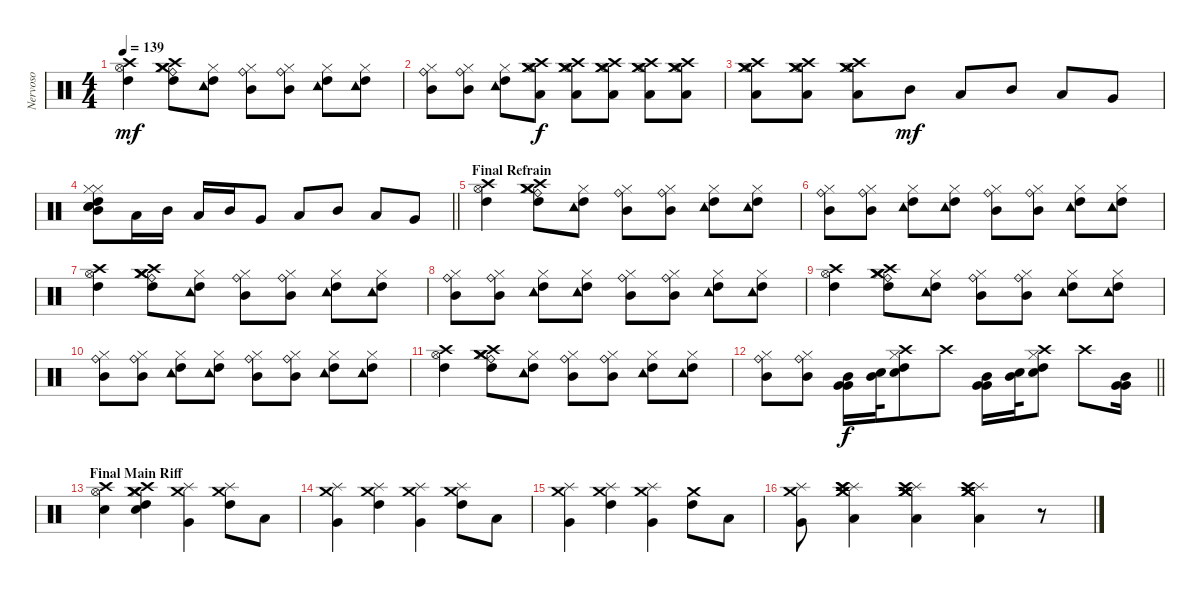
\track ("Nervoso" "Nervoso") {instrument percussion}
\staff {score}
\articulation defaults
\ts (4 4)
\tempo 139
\clef neutral
\ks c
("Hi-Hat (open)" "Crash high (hit)" "High Tom (hit)").4{dy mf} ("High Tom (hit)" "Crash high (hit)" "Crash medium (hit)" "Hi-Hat (closed)" "Ride (bell)" "Crash medium (hit)").8 ("High Tom (hit)" "Hi-Hat (closed)" "Tambourine (hit)").8 ("Ride (bell)" "Mid Tom (hit)" "Hi-Hat (closed)").8 ("Ride (bell)" "Mid Tom (hit)" "Hi-Hat (closed)").8 ("High Tom (hit)" "Hi-Hat (closed)" "Tambourine (hit)").8 ("High Tom (hit)" "Hi-Hat (closed)" "Tambourine (hit)").8 |
("Ride (bell)" "Mid Tom (hit)" "Hi-Hat (closed)").8 ("Ride (bell)" "Mid Tom (hit)" "Hi-Hat (closed)").8 ("High Tom (hit)" "Hi-Hat (closed)" "Tambourine (hit)").8 ("Crash high (hit)" "Crash medium (hit)" "Hi-Hat (open)" "Low Tom (hit)" "Crash medium (hit)").8{dy f} ("Crash high (hit)" "Crash medium (hit)" "Hi-Hat (open)" "Low Tom (hit)" "Crash medium (hit)").8 ("Crash high (hit)" "Crash medium (hit)" "Hi-Hat (open)" "Low Tom (hit)" "Crash medium (hit)").8 ("Crash high (hit)" "Crash medium (hit)" "Hi-Hat (open)" "Low Tom (hit)" "Crash medium (hit)").8 ("Crash high (hit)" "Crash medium (hit)" "Hi-Hat (open)" "Low Tom (hit)" "Crash medium (hit)").8 |
("Crash high (hit)" "Crash medium (hit)" "Hi-Hat (open)" "Low Tom (hit)" "Crash medium (hit)").8 ("Crash high (hit)" "Crash medium (hit)" "Hi-Hat (open)" "Low Tom (hit)" "Crash medium (hit)").8 ("Crash high (hit)" "Crash medium (hit)" "Hi-Hat (open)" "Low Tom (hit)" "Crash medium (hit)").8 "Mid Tom (hit)".8{dy mf} "Low Tom (hit)".8 "Mid Tom (hit)".8 "Low Tom (hit)".8 "Very Low Tom (hit)".8 |
\barLineRight lightlight
("High Tom (hit)" "Electric Snare (hit)" "Hi-Hat (closed)" "Hi-Hat (closed)" "Electric Snare (hit)" "Mid Tom (hit)").8 "Low Tom (hit)".16 "Mid Tom (hit)".16 "Low Tom (hit)".16 "Mid Tom (hit)".16 "Very Low Tom (hit)".8 "Low Tom (hit)".8 "Mid Tom (hit)".8 "Low Tom (hit)".8 "Very Low Tom (hit)".8 |
\section ("" "Final Refrain")
("Hi-Hat (open)" "Crash high (hit)" "High Tom (hit)").4 ("High Tom (hit)" "Crash high (hit)" "Crash medium (hit)" "Hi-Hat (closed)" "Ride (bell)" "Crash medium (hit)").8 ("High Tom (hit)" "Hi-Hat (closed)" "Tambourine (hit)").8 ("Ride (bell)" "Mid Tom (hit)" "Hi-Hat (closed)").8 ("Ride (bell)" "Mid Tom (hit)" "Hi-Hat (closed)").8 ("High Tom (hit)" "Hi-Hat (closed)" "Tambourine (hit)").8 ("High Tom (hit)" "Hi-Hat (closed)" "Tambourine (hit)").8 |
("Ride (bell)" "Mid Tom (hit)" "Hi-Hat (closed)").8 ("Ride (bell)" "Mid Tom (hit)" "Hi-Hat (closed)").8 ("High Tom (hit)" "Hi-Hat (closed)" "Tambourine (hit)").8 ("High Tom (hit)" "Hi-Hat (closed)" "Tambourine (hit)").8 ("Ride (bell)" "Mid Tom (hit)" "Hi-Hat (closed)").8 ("Ride (bell)" "Mid Tom (hit)" "Hi-Hat (closed)").8 ("High Tom (hit)" "Hi-Hat (closed)" "Tambourine (hit)").8 ("High Tom (hit)" "Hi-Hat (closed)" "Tambourine (hit)").8 |
("Hi-Hat (open)" "Crash high (hit)" "High Tom (hit)").4 ("High Tom (hit)" "Crash high (hit)" "Crash medium (hit)" "Hi-Hat (closed)" "Ride (bell)" "Crash medium (hit)").8 ("High Tom (hit)" "Hi-Hat (closed)" "Tambourine (hit)").8 ("Ride (bell)" "Mid Tom (hit)" "Hi-Hat (closed)").8 ("Ride (bell)" "Mid Tom (hit)" "Hi-Hat (closed)").8 ("High Tom (hit)" "Hi-Hat (closed)" "Tambourine (hit)").8 ("High Tom (hit)" "Hi-Hat (closed)" "Tambourine (hit)").8 |
("Ride (bell)" "Mid Tom (hit)" "Hi-Hat (closed)").8 ("Ride (bell)" "Mid Tom (hit)" "Hi-Hat (closed)").8 ("High Tom (hit)" "Hi-Hat (closed)" "Tambourine (hit)").8 ("High Tom (hit)" "Hi-Hat (closed)" "Tambourine (hit)").8 ("Ride (bell)" "Mid Tom (hit)" "Hi-Hat (closed)").8 ("Ride (bell)" "Mid Tom (hit)" "Hi-Hat (closed)").8 ("High Tom (hit)" "Hi-Hat (closed)" "Tambourine (hit)").8 ("High Tom (hit)" "Hi-Hat (closed)" "Tambourine (hit)").8 |
("Hi-Hat (open)" "Crash high (hit)" "High Tom (hit)").4 ("High Tom (hit)" "Crash high (hit)" "Crash medium (hit)" "Hi-Hat (closed)" "Ride (bell)" "Crash medium (hit)").8 ("High Tom (hit)" "Hi-Hat (closed)" "Tambourine (hit)").8 ("Ride (bell)" "Mid Tom (hit)" "Hi-Hat (closed)").8 ("Ride (bell)" "Mid Tom (hit)" "Hi-Hat (closed)").8 ("High Tom (hit)" "Hi-Hat (closed)" "Tambourine (hit)").8 ("High Tom (hit)" "Hi-Hat (closed)" "Tambourine (hit)").8 |
("Ride (bell)" "Mid Tom (hit)" "Hi-Hat (closed)").8 ("Ride (bell)" "Mid Tom (hit)" "Hi-Hat (closed)").8 ("High Tom (hit)" "Hi-Hat (closed)" "Tambourine (hit)").8 ("High Tom (hit)" "Hi-Hat (closed)" "Tambourine (hit)").8 ("Ride (bell)" "Mid Tom (hit)" "Hi-Hat (closed)").8 ("Ride (bell)" "Mid Tom (hit)" "Hi-Hat (closed)").8 ("High Tom (hit)" "Hi-Hat (closed)" "Tambourine (hit)").8 ("High Tom (hit)" "Hi-Hat (closed)" "Tambourine (hit)").8 |
("Hi-Hat (open)" "Crash high (hit)" "High Tom (hit)").4 ("High Tom (hit)" "Crash high (hit)" "Crash medium (hit)" "Hi-Hat (closed)" "Ride (bell)" "Crash medium (hit)").8 ("High Tom (hit)" "Hi-Hat (closed)" "Tambourine (hit)").8 ("Ride (bell)" "Mid Tom (hit)" "Hi-Hat (closed)").8 ("Ride (bell)" "Mid Tom (hit)" "Hi-Hat (closed)").8 ("High Tom (hit)" "Hi-Hat (closed)" "Tambourine (hit)").8 ("High Tom (hit)" "Hi-Hat (closed)" "Tambourine (hit)").8 |
\barLineRight lightlight
("Ride (bell)" "Mid Tom (hit)" "Hi-Hat (closed)").8 ("Ride (bell)" "Mid Tom (hit)" "Hi-Hat (closed)").8 ("Very Low Tom (hit)" "Mid Tom (hit)" "Very Low Tom (hit)").16{dy f} ("Mid Tom (hit)" "Electric Snare (hit)").32 ("High Tom (hit)" "Hi-Hat (closed)" "Electric Snare (hit)" "Crash high (hit)").8 "Crash high (hit)".8 ("Very Low Tom (hit)" "Mid Tom (hit)" "Very Low Tom (hit)").16 ("Mid Tom (hit)" "Electric Snare (hit)").32 ("High Tom (hit)" "Hi-Hat (closed)" "Electric Snare (hit)" "Crash high (hit)").8 "Crash high (hit)".8 ("Very Low Tom (hit)" "Mid Tom (hit)" "Very Low Tom (hit)").16 |
\section ("" "Final Main Riff")
("Hi-Hat (open)" "Crash high (hit)" "Electric Snare (hit)").4 ("High Tom (hit)" "Hi-Hat (closed)" "Electric Snare (hit)" "Crash high (hit)" "Crash medium (hit)" "Crash medium (hit)").4 ("Very Low Tom (hit)" "Splash (hit)" "Crash medium (hit)").4 ("High Tom (hit)" "Crash medium (hit)" "Splash (hit)").8 "Low Tom (hit)".8 |
("Very Low Tom (hit)" "Splash (hit)" "Crash medium (hit)").4 ("High Tom (hit)" "Crash medium (hit)" "Splash (hit)").4 ("Very Low Tom (hit)" "Splash (hit)" "Crash medium (hit)").4 ("High Tom (hit)" "Crash medium (hit)" "Splash (hit)").8 "Low Tom (hit)".8 |
("Very Low Tom (hit)" "Splash (hit)" "Crash medium (hit)").4 ("High Tom (hit)" "Crash medium (hit)" "Splash (hit)").4 ("Very Low Tom (hit)" "Crash medium (hit)" "Splash (hit)").4 ("High Tom (hit)" "Crash medium (hit)").8 "Low Tom (hit)".8 |
("Very Low Tom (hit)" "Splash (hit)" "Crash medium (hit)").8 ("Crash medium (hit)" "Splash (hit)" "Crash high (hit)" "Low Tom (hit)" "Crash high (hit)" "Crash medium (hit)").4 ("Crash medium (hit)" "Splash (hit)" "Low Tom (hit)" "Crash high (hit)" "Crash medium (hit)" "Crash medium (hit)").4 ("Crash medium (hit)" "Splash (hit)" "Low Tom (hit)" "Crash high (hit)" "Crash medium (hit)").4 r.8
